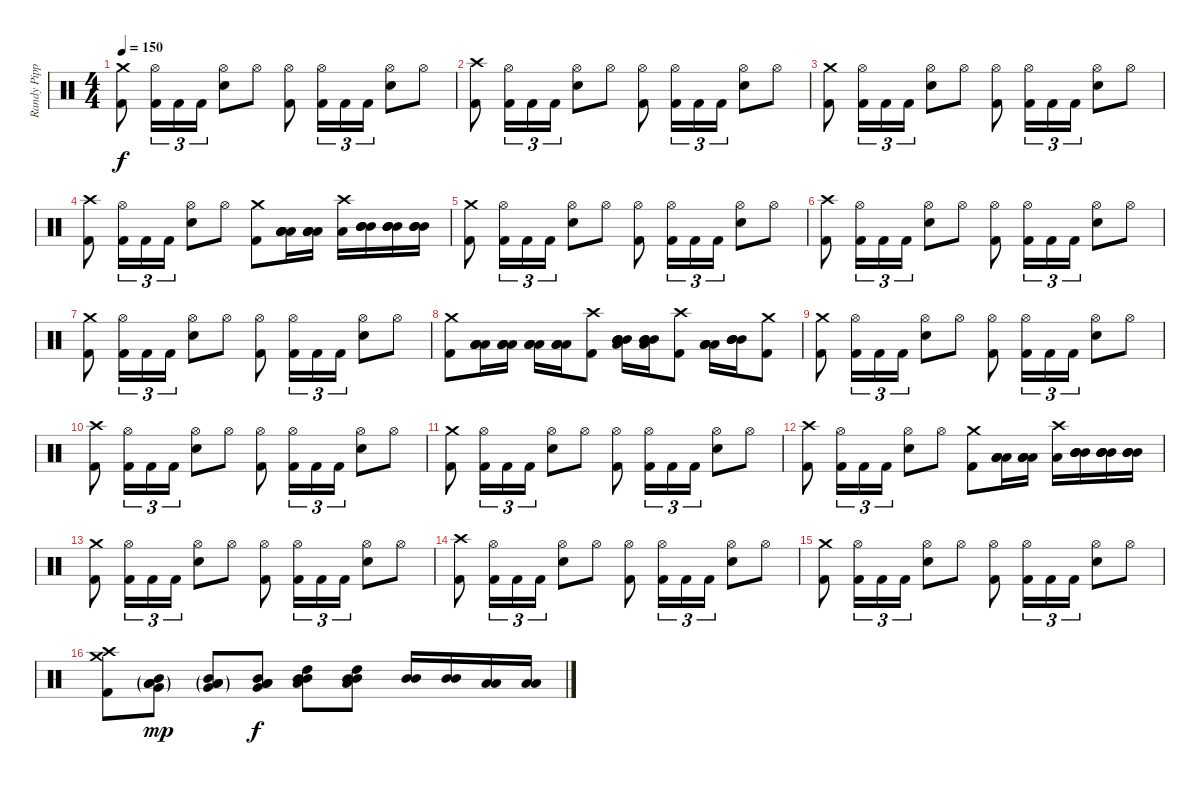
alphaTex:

\track ("Randy Pipper" "Randy Pipp") {instrument percussion}
\staff {score}
\articulation defaults
\ts (4 4)
\tempo 150
\clef neutral
\ks c
("Kick (hit) 2" "Crash medium (hit)").8{dy f} ("Kick (hit) 2" "Hi-Hat (open)").16{tu (3 2)} "Kick (hit) 2".16{tu (3 2)} "Kick (hit) 2".16{tu (3 2)} ("Snare (hit) 2" "Hi-Hat (open)").8 "Hi-Hat (open)".8 ("Kick (hit) 2" "Hi-Hat (open)").8 ("Kick (hit) 2" "Hi-Hat (open)").16{tu (3 2)} "Kick (hit) 2".16{tu (3 2)} "Kick (hit) 2".16{tu (3 2)} ("Snare (hit) 2" "Hi-Hat (open)").8 "Hi-Hat (open)".8 |
("Kick (hit) 2" "Crash high (hit)").8 ("Kick (hit) 2" "Hi-Hat (open)").16{tu (3 2)} "Kick (hit) 2".16{tu (3 2)} "Kick (hit) 2".16{tu (3 2)} ("Snare (hit) 2" "Hi-Hat (open)").8 "Hi-Hat (open)".8 ("Kick (hit) 2" "Hi-Hat (open)").8 ("Kick (hit) 2" "Hi-Hat (open)").16{tu (3 2)} "Kick (hit) 2".16{tu (3 2)} "Kick (hit) 2".16{tu (3 2)} ("Snare (hit) 2" "Hi-Hat (open)").8 "Hi-Hat (open)".8 |
("Kick (hit) 2" "Crash medium (hit)").8 ("Kick (hit) 2" "Hi-Hat (open)").16{tu (3 2)} "Kick (hit) 2".16{tu (3 2)} "Kick (hit) 2".16{tu (3 2)} ("Snare (hit) 2" "Hi-Hat (open)").8 "Hi-Hat (open)".8 ("Kick (hit) 2" "Hi-Hat (open)").8 ("Kick (hit) 2" "Hi-Hat (open)").16{tu (3 2)} "Kick (hit) 2".16{tu (3 2)} "Kick (hit) 2".16{tu (3 2)} ("Snare (hit) 2" "Hi-Hat (open)").8 "Hi-Hat (open)".8 |
("Kick (hit) 2" "Crash high (hit)").8 ("Kick (hit) 2" "Hi-Hat (open)").16{tu (3 2)} "Kick (hit) 2".16{tu (3 2)} "Kick (hit) 2".16{tu (3 2)} ("Snare (hit) 2" "Hi-Hat (open)").8 "Hi-Hat (open)".8 ("Kick (hit) 2" "Crash medium (hit)").8 ("Low Tom (hit)" "Low Tom (hit)" "Low Tom (hit)" "Low Tom (hit)").16 ("Low Tom (hit)" "Low Tom (hit)" "Low Tom (hit)" "Low Tom (hit)").16 ("Low Tom (hit)" "Crash high (hit)").16 ("Mid Tom (hit)" "Mid Tom (hit)" "Mid Tom (hit)" "Mid Tom (hit)").16 ("Mid Tom (hit)" "Mid Tom (hit)" "Mid Tom (hit)" "Mid Tom (hit)").16 ("Mid Tom (hit)" "Mid Tom (hit)" "Mid Tom (hit)" "Mid Tom (hit)").16 |
("Kick (hit) 2" "Crash medium (hit)").8 ("Kick (hit) 2" "Hi-Hat (open)").16{tu (3 2)} "Kick (hit) 2".16{tu (3 2)} "Kick (hit) 2".16{tu (3 2)} ("Snare (hit) 2" "Hi-Hat (open)").8 "Hi-Hat (open)".8 ("Kick (hit) 2" "Hi-Hat (open)").8 ("Kick (hit) 2" "Hi-Hat (open)").16{tu (3 2)} "Kick (hit) 2".16{tu (3 2)} "Kick (hit) 2".16{tu (3 2)} ("Snare (hit) 2" "Hi-Hat (open)").8 "Hi-Hat (open)".8 |
("Kick (hit) 2" "Crash high (hit)").8 ("Kick (hit) 2" "Hi-Hat (open)").16{tu (3 2)} "Kick (hit) 2".16{tu (3 2)} "Kick (hit) 2".16{tu (3 2)} ("Snare (hit) 2" "Hi-Hat (open)").8 "Hi-Hat (open)".8 ("Kick (hit) 2" "Hi-Hat (open)").8 ("Kick (hit) 2" "Hi-Hat (open)").16{tu (3 2)} "Kick (hit) 2".16{tu (3 2)} "Kick (hit) 2".16{tu (3 2)} ("Snare (hit) 2" "Hi-Hat (open)").8 "Hi-Hat (open)".8 |
("Kick (hit) 2" "Crash medium (hit)").8 ("Kick (hit) 2" "Hi-Hat (open)").16{tu (3 2)} "Kick (hit) 2".16{tu (3 2)} "Kick (hit) 2".16{tu (3 2)} ("Snare (hit) 2" "Hi-Hat (open)").8 "Hi-Hat (open)".8 ("Kick (hit) 2" "Hi-Hat (open)").8 ("Kick (hit) 2" "Hi-Hat (open)").16{tu (3 2)} "Kick (hit) 2".16{tu (3 2)} "Kick (hit) 2".16{tu (3 2)} ("Snare (hit) 2" "Hi-Hat (open)").8 "Hi-Hat (open)".8 |
("Kick (hit) 2" "Crash medium (hit)").8 ("Low Tom (hit)" "Low Tom (hit)" "Low Tom (hit)" "Low Tom (hit)").16 ("Low Tom (hit)" "Low Tom (hit)" "Low Tom (hit)" "Low Tom (hit)").16 ("Low Tom (hit)" "Low Tom (hit)" "Low Tom (hit)" "Low Tom (hit)").16 ("Low Tom (hit)" "Low Tom (hit)" "Low Tom (hit)" "Low Tom (hit)").16 ("Kick (hit) 2" "Crash high (hit)").8 ("Low Tom (hit)" "Mid Tom (hit)" "Mid Tom (hit)" "Mid Tom (hit)").16 ("Low Tom (hit)" "Mid Tom (hit)" "Mid Tom (hit)" "Mid Tom (hit)").16 ("Kick (hit) 2" "Crash high (hit)").8 ("Low Tom (hit)" "Low Tom (hit)" "Low Tom (hit)" "Low Tom (hit)").16 ("Mid Tom (hit)" "Mid Tom (hit)" "Mid Tom (hit)" "Mid Tom (hit)").16 ("Kick (hit) 2" "Crash medium (hit)").8 |
("Kick (hit) 2" "Crash medium (hit)").8 ("Kick (hit) 2" "Hi-Hat (open)").16{tu (3 2)} "Kick (hit) 2".16{tu (3 2)} "Kick (hit) 2".16{tu (3 2)} ("Snare (hit) 2" "Hi-Hat (open)").8 "Hi-Hat (open)".8 ("Kick (hit) 2" "Hi-Hat (open)").8 ("Kick (hit) 2" "Hi-Hat (open)").16{tu (3 2)} "Kick (hit) 2".16{tu (3 2)} "Kick (hit) 2".16{tu (3 2)} ("Snare (hit) 2" "Hi-Hat (open)").8 "Hi-Hat (open)".8 |
("Kick (hit) 2" "Crash high (hit)").8 ("Kick (hit) 2" "Hi-Hat (open)").16{tu (3 2)} "Kick (hit) 2".16{tu (3 2)} "Kick (hit) 2".16{tu (3 2)} ("Snare (hit) 2" "Hi-Hat (open)").8 "Hi-Hat (open)".8 ("Kick (hit) 2" "Hi-Hat (open)").8 ("Kick (hit) 2" "Hi-Hat (open)").16{tu (3 2)} "Kick (hit) 2".16{tu (3 2)} "Kick (hit) 2".16{tu (3 2)} ("Snare (hit) 2" "Hi-Hat (open)").8 "Hi-Hat (open)".8 |
("Kick (hit) 2" "Crash medium (hit)").8 ("Kick (hit) 2" "Hi-Hat (open)").16{tu (3 2)} "Kick (hit) 2".16{tu (3 2)} "Kick (hit) 2".16{tu (3 2)} ("Snare (hit) 2" "Hi-Hat (open)").8 "Hi-Hat (open)".8 ("Kick (hit) 2" "Hi-Hat (open)").8 ("Kick (hit) 2" "Hi-Hat (open)").16{tu (3 2)} "Kick (hit) 2".16{tu (3 2)} "Kick (hit) 2".16{tu (3 2)} ("Snare (hit) 2" "Hi-Hat (open)").8 "Hi-Hat (open)".8 |
("Kick (hit) 2" "Crash high (hit)").8 ("Kick (hit) 2" "Hi-Hat (open)").16{tu (3 2)} "Kick (hit) 2".16{tu (3 2)} "Kick (hit) 2".16{tu (3 2)} ("Snare (hit) 2" "Hi-Hat (open)").8 "Hi-Hat (open)".8 ("Kick (hit) 2" "Crash medium (hit)").8 ("Low Tom (hit)" "Low Tom (hit)" "Low Tom (hit)" "Low Tom (hit)").16 ("Low Tom (hit)" "Low Tom (hit)" "Low Tom (hit)" "Low Tom (hit)").16 ("Low Tom (hit)" "Crash high (hit)").16 ("Mid Tom (hit)" "Mid Tom (hit)" "Mid Tom (hit)" "Mid Tom (hit)").16 ("Mid Tom (hit)" "Mid Tom (hit)" "Mid Tom (hit)" "Mid Tom (hit)").16 ("Mid Tom (hit)" "Mid Tom (hit)" "Mid Tom (hit)" "Mid Tom (hit)").16 |
("Kick (hit) 2" "Crash medium (hit)").8 ("Kick (hit) 2" "Hi-Hat (open)").16{tu (3 2)} "Kick (hit) 2".16{tu (3 2)} "Kick (hit) 2".16{tu (3 2)} ("Snare (hit) 2" "Hi-Hat (open)").8 "Hi-Hat (open)".8 ("Kick (hit) 2" "Hi-Hat (open)").8 ("Kick (hit) 2" "Hi-Hat (open)").16{tu (3 2)} "Kick (hit) 2".16{tu (3 2)} "Kick (hit) 2".16{tu (3 2)} ("Snare (hit) 2" "Hi-Hat (open)").8 "Hi-Hat (open)".8 |
("Kick (hit) 2" "Crash high (hit)").8 ("Kick (hit) 2" "Hi-Hat (open)").16{tu (3 2)} "Kick (hit) 2".16{tu (3 2)} "Kick (hit) 2".16{tu (3 2)} ("Snare (hit) 2" "Hi-Hat (open)").8 "Hi-Hat (open)".8 ("Kick (hit) 2" "Hi-Hat (open)").8 ("Kick (hit) 2" "Hi-Hat (open)").16{tu (3 2)} "Kick (hit) 2".16{tu (3 2)} "Kick (hit) 2".16{tu (3 2)} ("Snare (hit) 2" "Hi-Hat (open)").8 "Hi-Hat (open)".8 |
("Kick (hit) 2" "Crash medium (hit)").8 ("Kick (hit) 2" "Hi-Hat (open)").16{tu (3 2)} "Kick (hit) 2".16{tu (3 2)} "Kick (hit) 2".16{tu (3 2)} ("Snare (hit) 2" "Hi-Hat (open)").8 "Hi-Hat (open)".8 ("Kick (hit) 2" "Hi-Hat (open)").8 ("Kick (hit) 2" "Hi-Hat (open)").16{tu (3 2)} "Kick (hit) 2".16{tu (3 2)} "Kick (hit) 2".16{tu (3 2)} ("Snare (hit) 2" "Hi-Hat (open)").8 "Hi-Hat (open)".8 |
("Crash medium (hit)" "Crash high (hit)" "Kick (hit) 2").8 ("Mid Tom (hit)"{g} "Low Tom (hit)"{g} "Low Tom (hit)"{g} "Very Low Tom (hit)"{g}).8{dy mp} ("Mid Tom (hit)"{g} "Low Tom (hit)"{g} "Low Tom (hit)"{g} "Very Low Tom (hit)"{g}).8 ("Mid Tom (hit)" "Low Tom (hit)" "Low Tom (hit)" "Very Low Tom (hit)").8{dy f} ("Mid Tom (hit)" "Mid Tom (hit)" "Low Tom (hit)" "High Tom (hit)").8 ("Mid Tom (hit)" "Mid Tom (hit)" "Low Tom (hit)" "High Tom (hit)").8 ("Mid Tom (hit)" "Mid Tom (hit)").16 ("Mid Tom (hit)" "Mid Tom (hit)").16 ("Low Tom (hit)" "Low Tom (hit)").16 ("Low Tom (hit)" "Low Tom (hit)").16
